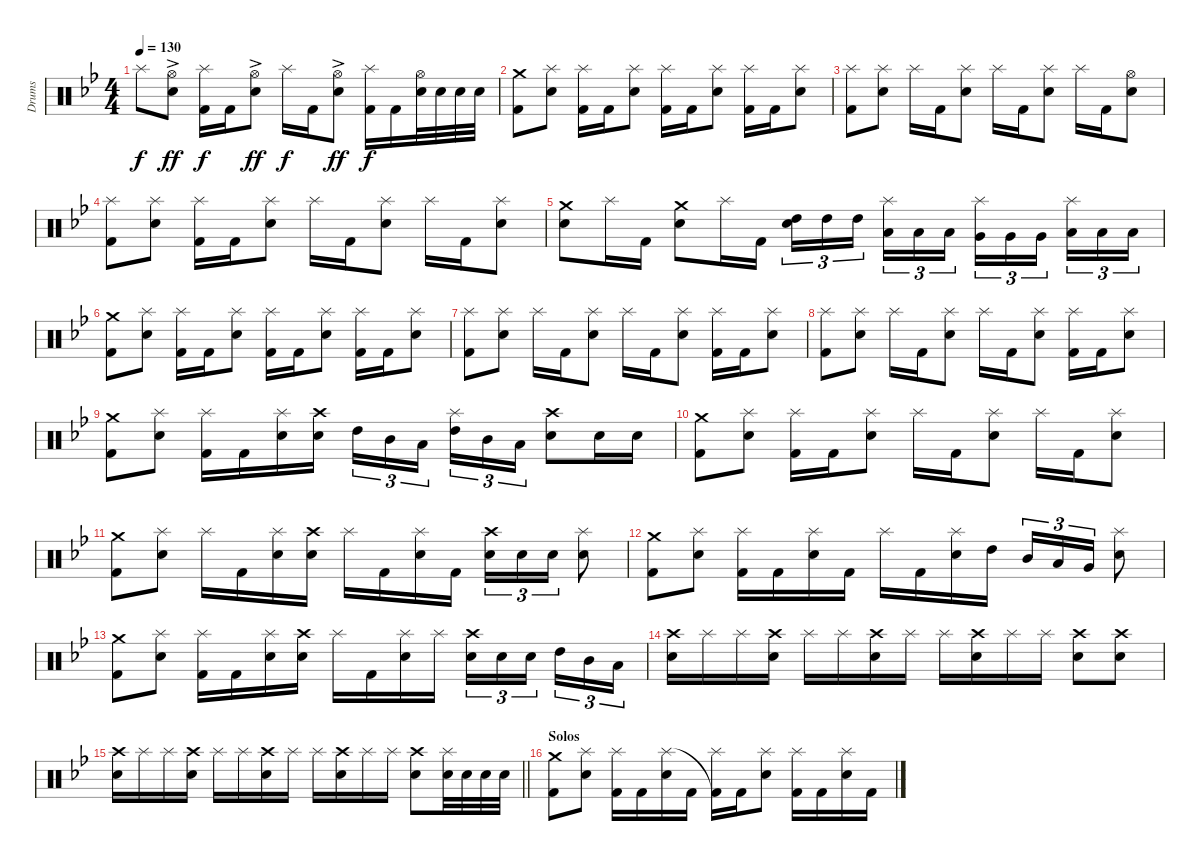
\track ("Drums" "Drums") {instrument percussion}
\staff {score}
\articulation defaults
\ts (4 4)
\tempo 130
\clef neutral
\ks bb "Splash (hit)".8{dy f}
("Electric Snare (hit)"{ac} "Hi-Hat (open)").8{dy ff} ("Splash (hit)" "Kick (hit) 2").16{dy f} "Kick (hit) 2".16 ("Electric Snare (hit)"{ac} "Hi-Hat (open)").8{dy ff} "Splash (hit)".16{dy f} "Kick (hit) 2".16 ("Electric Snare (hit)"{ac} "Hi-Hat (open)").8{dy ff} ("Splash (hit)" "Kick (hit) 2").16{dy f} "Kick (hit) 2".16 ("Electric Snare (hit)" "Hi-Hat (open)").32 "Electric Snare (hit)".32 "Electric Snare (hit)".32 "Electric Snare (hit)".32 |
("Crash medium (hit)" "Kick (hit) 2").8 ("Electric Snare (hit)" "Splash (hit)").8 ("Splash (hit)" "Kick (hit) 2").16 "Kick (hit) 2".16 ("Electric Snare (hit)" "Splash (hit)").8 ("Splash (hit)" "Kick (hit) 2").16 "Kick (hit) 2".16 ("Electric Snare (hit)" "Splash (hit)").8 ("Splash (hit)" "Kick (hit) 2").16 "Kick (hit) 2".16 ("Electric Snare (hit)" "Splash (hit)").8 |
("Splash (hit)" "Kick (hit) 2").8 ("Electric Snare (hit)" "Splash (hit)").8 "Splash (hit)".16 "Kick (hit) 2".16 ("Electric Snare (hit)" "Splash (hit)").8 "Splash (hit)".16 "Kick (hit) 2".16 ("Electric Snare (hit)" "Splash (hit)").8 "Splash (hit)".16 "Kick (hit) 2".16 ("Electric Snare (hit)" "Hi-Hat (open)").8 |
("Splash (hit)" "Kick (hit) 2").8 ("Electric Snare (hit)" "Splash (hit)").8 ("Splash (hit)" "Kick (hit) 2").16 "Kick (hit) 2".16 ("Electric Snare (hit)" "Splash (hit)").8 "Splash (hit)".16 "Kick (hit) 2".16 ("Electric Snare (hit)" "Splash (hit)").8 "Splash (hit)".16 "Kick (hit) 2".16 ("Electric Snare (hit)" "Splash (hit)").8 |
("Crash medium (hit)" "Electric Snare (hit)").8 "Splash (hit)".16 "Kick (hit) 2".16 ("Crash medium (hit)" "Electric Snare (hit)").8 "Splash (hit)".16 "Kick (hit) 2".16 ("High Tom (hit)" "Electric Snare (hit)").16{tu (3 2)} "High Tom (hit)".16{tu (3 2)} "High Tom (hit)".16{tu (3 2) beam splitsecondary} ("Low Tom (hit)" "Splash (hit)").16{tu (3 2)} "Low Tom (hit)".16{tu (3 2)} "Low Tom (hit)".16{tu (3 2)} ("Very Low Tom (hit)" "Splash (hit)").16{tu (3 2)} "Very Low Tom (hit)".16{tu (3 2)} "Very Low Tom (hit)".16{tu (3 2) beam splitsecondary} ("Low Floor Tom (hit)" "Splash (hit)").16{tu (3 2)} "Low Floor Tom (hit)".16{tu (3 2)} "Low Floor Tom (hit)".16{tu (3 2)} |
("Crash medium (hit)" "Kick (hit) 2").8 ("Electric Snare (hit)" "Splash (hit)").8 ("Splash (hit)" "Kick (hit) 2").16 "Kick (hit) 2".16 ("Electric Snare (hit)" "Splash (hit)").8 ("Splash (hit)" "Kick (hit) 2").16 "Kick (hit) 2".16 ("Electric Snare (hit)" "Splash (hit)").8 ("Splash (hit)" "Kick (hit) 2").16 "Kick (hit) 2".16 ("Electric Snare (hit)" "Splash (hit)").8 |
("Splash (hit)" "Kick (hit) 2").8 ("Electric Snare (hit)" "Splash (hit)").8 "Splash (hit)".16 "Kick (hit) 2".16 ("Electric Snare (hit)" "Splash (hit)").8 "Splash (hit)".16 "Kick (hit) 2".16 ("Electric Snare (hit)" "Splash (hit)").8 ("Splash (hit)" "Kick (hit) 2").16 "Kick (hit) 2".16 ("Electric Snare (hit)" "Splash (hit)").8 |
("Splash (hit)" "Kick (hit) 2").8 ("Electric Snare (hit)" "Splash (hit)").8 "Splash (hit)".16 "Kick (hit) 2".16 ("Electric Snare (hit)" "Splash (hit)").8 "Splash (hit)".16 "Kick (hit) 2".16 ("Electric Snare (hit)" "Splash (hit)").8 ("Splash (hit)" "Kick (hit) 2").16 "Kick (hit) 2".16 ("Electric Snare (hit)" "Splash (hit)").8 |
("Crash medium (hit)" "Kick (hit) 2").8 ("Electric Snare (hit)" "Splash (hit)").8 ("Splash (hit)" "Kick (hit) 2").16 "Kick (hit) 2".16 ("Electric Snare (hit)" "Splash (hit)").16 ("Electric Snare (hit)" "Crash high (hit)").16 "High Tom (hit)".16{tu (3 2)} "Mid Tom (hit)".16{tu (3 2)} "Low Tom (hit)".16{tu (3 2) beam splitsecondary} ("High Tom (hit)" "Splash (hit)").16{tu (3 2)} "Mid Tom (hit)".16{tu (3 2)} "Low Tom (hit)".16{tu (3 2)} ("Electric Snare (hit)" "Crash high (hit)").8 "Electric Snare (hit)".16 "Electric Snare (hit)".16 |
("Crash medium (hit)" "Kick (hit) 2").8 ("Electric Snare (hit)" "Splash (hit)").8 ("Splash (hit)" "Kick (hit) 2").16 "Kick (hit) 2".16 ("Electric Snare (hit)" "Splash (hit)").8 "Splash (hit)".16 "Kick (hit) 2".16 ("Electric Snare (hit)" "Splash (hit)").8 "Splash (hit)".16 "Kick (hit) 2".16 ("Electric Snare (hit)" "Splash (hit)").8 |
("Crash medium (hit)" "Kick (hit) 2").8 ("Electric Snare (hit)" "Splash (hit)").8 "Splash (hit)".16 "Kick (hit) 2".16 ("Electric Snare (hit)" "Splash (hit)").16 ("Electric Snare (hit)" "Crash high (hit)").16 "Splash (hit)".16 "Kick (hit) 2".16 ("Electric Snare (hit)" "Splash (hit)").16 "Kick (hit) 2".16 ("Electric Snare (hit)" "Crash high (hit)").16{tu (3 2)} "Electric Snare (hit)".16{tu (3 2)} "Electric Snare (hit)".16{tu (3 2)} ("Electric Snare (hit)" "Splash (hit)").8 |
("Crash medium (hit)" "Kick (hit) 2").8 ("Electric Snare (hit)" "Splash (hit)").8 ("Splash (hit)" "Kick (hit) 2").16 "Kick (hit) 2".16 ("Electric Snare (hit)" "Splash (hit)").16 "Kick (hit) 2".16 "Splash (hit)".16 "Kick (hit) 2".16 ("Electric Snare (hit)" "Splash (hit)").16 "High Tom (hit)".16 "Mid Tom (hit)".16{tu (3 2)} "Low Tom (hit)".16{tu (3 2)} "Very Low Tom (hit)".16{tu (3 2)} ("Electric Snare (hit)" "Splash (hit)").8 |
("Crash medium (hit)" "Kick (hit) 2").8 ("Electric Snare (hit)" "Splash (hit)").8 ("Splash (hit)" "Kick (hit) 2").16 "Kick (hit) 2".16 ("Electric Snare (hit)" "Splash (hit)").16 ("Electric Snare (hit)" "Crash high (hit)").16 "Splash (hit)".16 "Kick (hit) 2".16 ("Electric Snare (hit)" "Splash (hit)").16 "Splash (hit)".16 ("Electric Snare (hit)" "Crash high (hit)").16{tu (3 2)} "Electric Snare (hit)".16{tu (3 2)} "Electric Snare (hit)".16{tu (3 2) beam splitsecondary} "High Tom (hit)".16{tu (3 2)} "Mid Tom (hit)".16{tu (3 2)} "Low Tom (hit)".16{tu (3 2)} |
("Crash high (hit)" "Electric Snare (hit)").16 "Splash (hit)".16 "Splash (hit)".16 ("Crash high (hit)" "Electric Snare (hit)").16 "Splash (hit)".16 "Splash (hit)".16 ("Crash high (hit)" "Electric Snare (hit)").16 "Splash (hit)".16 "Splash (hit)".16 ("Crash high (hit)" "Electric Snare (hit)").16 "Splash (hit)".16 "Splash (hit)".16 ("Crash high (hit)" "Electric Snare (hit)").8 ("Crash high (hit)" "Electric Snare (hit)").8 |
\barLineRight lightlight
("Crash high (hit)" "Electric Snare (hit)").16 "Splash (hit)".16 "Splash (hit)".16 ("Crash high (hit)" "Electric Snare (hit)").16 "Splash (hit)".16 "Splash (hit)".16 ("Crash high (hit)" "Electric Snare (hit)").16 "Splash (hit)".16 "Splash (hit)".16 ("Crash high (hit)" "Electric Snare (hit)").16 "Splash (hit)".16 "Splash (hit)".16 ("Crash high (hit)" "Electric Snare (hit)").8 ("Electric Snare (hit)" "Splash (hit)").32{volume 11} "Electric Snare (hit)".32 "Electric Snare (hit)".32{volume 10} "Electric Snare (hit)".32 |
\section ("" "Solos")
("Crash medium (hit)" "Kick (hit) 2").8{volume 12} ("Splash (hit)" "Electric Snare (hit)").8 ("Splash (hit)" "Kick (hit) 2").16 "Kick (hit) 2".16 ("Electric Snare (hit)" "Splash (hit)").16 "Kick (hit) 2".16 ("Splash (hit)" "Kick (hit) 2"{t}).16 "Kick (hit) 2".16 ("Electric Snare (hit)" "Splash (hit)").8 ("Splash (hit)" "Kick (hit) 2").16 "Kick (hit) 2".16 ("Electric Snare (hit)" "Splash (hit)").16 "Kick (hit) 2".16
